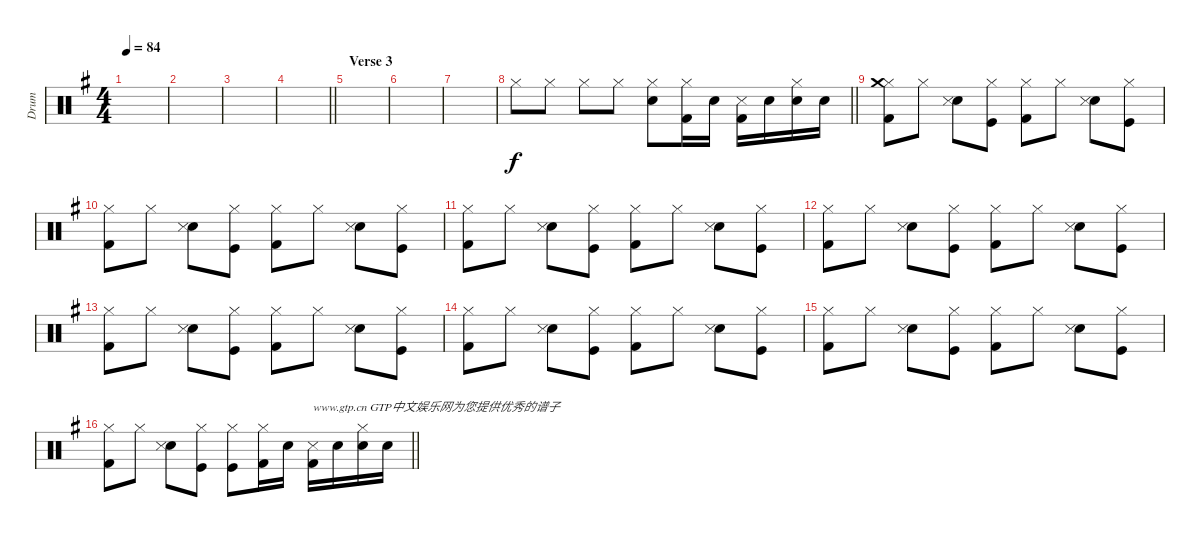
\track ("Drum" "Drum") {instrument percussion}
\staff {score}
\articulation defaults
\ts (4 4)
\section ("" "")
\tempo 84
\clef neutral
\ks g
|
|
|
\barLineRight lightlight
|
\section ("" "Verse 3")
|
|
|
\barLineRight lightlight "Hi-Hat (closed)".8 "Hi-Hat (closed)".8 "Hi-Hat (closed)".8 "Hi-Hat (closed)".8
("Electric Snare (hit)" "Hi-Hat (closed)").8 ("Kick (hit) 2" "Hi-Hat (closed)").16 "Electric Snare (hit)".16 ("Kick (hit) 2" "Snare (side stick) 3").16 "Electric Snare (hit)".16 ("Electric Snare (hit)" "Hi-Hat (closed)").16 "Electric Snare (hit)".16 |
("Kick (hit) 2" "Hi-Hat (closed)" "Crash medium (hit)").8 "Hi-Hat (closed)".8 ("Electric Snare (hit)" "Snare (side stick) 3").8 ("Kick (hit)" "Hi-Hat (closed)").8 ("Kick (hit) 2" "Hi-Hat (closed)").8 "Hi-Hat (closed)".8 ("Electric Snare (hit)" "Snare (side stick) 3").8 ("Kick (hit)" "Hi-Hat (closed)").8 |
("Kick (hit) 2" "Hi-Hat (closed)").8 "Hi-Hat (closed)".8 ("Electric Snare (hit)" "Snare (side stick) 3").8 ("Kick (hit)" "Hi-Hat (closed)").8 ("Kick (hit) 2" "Hi-Hat (closed)").8 "Hi-Hat (closed)".8 ("Electric Snare (hit)" "Snare (side stick) 3").8 ("Kick (hit)" "Hi-Hat (closed)").8 |
("Kick (hit) 2" "Hi-Hat (closed)").8 "Hi-Hat (closed)".8 ("Electric Snare (hit)" "Snare (side stick) 3").8 ("Kick (hit)" "Hi-Hat (closed)").8 ("Kick (hit) 2" "Hi-Hat (closed)").8 "Hi-Hat (closed)".8 ("Electric Snare (hit)" "Snare (side stick) 3").8 ("Kick (hit)" "Hi-Hat (closed)").8 |
("Kick (hit) 2" "Hi-Hat (closed)").8 "Hi-Hat (closed)".8 ("Electric Snare (hit)" "Snare (side stick) 3").8 ("Kick (hit)" "Hi-Hat (closed)").8 ("Kick (hit) 2" "Hi-Hat (closed)").8 "Hi-Hat (closed)".8 ("Electric Snare (hit)" "Snare (side stick) 3").8 ("Kick (hit)" "Hi-Hat (closed)").8 |
("Kick (hit) 2" "Hi-Hat (closed)").8 "Hi-Hat (closed)".8 ("Electric Snare (hit)" "Snare (side stick) 3").8 ("Kick (hit)" "Hi-Hat (closed)").8 ("Kick (hit) 2" "Hi-Hat (closed)").8 "Hi-Hat (closed)".8 ("Electric Snare (hit)" "Snare (side stick) 3").8 ("Kick (hit)" "Hi-Hat (closed)").8 |
("Kick (hit) 2" "Hi-Hat (closed)").8 "Hi-Hat (closed)".8 ("Electric Snare (hit)" "Snare (side stick) 3").8 ("Kick (hit)" "Hi-Hat (closed)").8 ("Kick (hit) 2" "Hi-Hat (closed)").8 "Hi-Hat (closed)".8 ("Electric Snare (hit)" "Snare (side stick) 3").8 ("Kick (hit)" "Hi-Hat (closed)").8 |
("Kick (hit) 2" "Hi-Hat (closed)").8 "Hi-Hat (closed)".8 ("Electric Snare (hit)" "Snare (side stick) 3").8 ("Kick (hit)" "Hi-Hat (closed)").8 ("Kick (hit) 2" "Hi-Hat (closed)").8 "Hi-Hat (closed)".8 ("Electric Snare (hit)" "Snare (side stick) 3").8 ("Kick (hit)" "Hi-Hat (closed)").8 |
\barLineRight lightlight
("Kick (hit) 2" "Hi-Hat (closed)").8 "Hi-Hat (closed)".8 ("Electric Snare (hit)" "Snare (side stick) 3").8 ("Kick (hit)" "Hi-Hat (closed)").8 ("Kick (hit)" "Hi-Hat (closed)").8 ("Kick (hit) 2" "Hi-Hat (closed)").16 "Electric Snare (hit)".16 ("Kick (hit) 2" "Snare (side stick) 3").16{txt "www.gtp.cn GTP中文娱乐网为您提供优秀的谱子"} "Electric Snare (hit)".16 ("Electric Snare (hit)" "Hi-Hat (closed)").16 "Electric Snare (hit)".16
